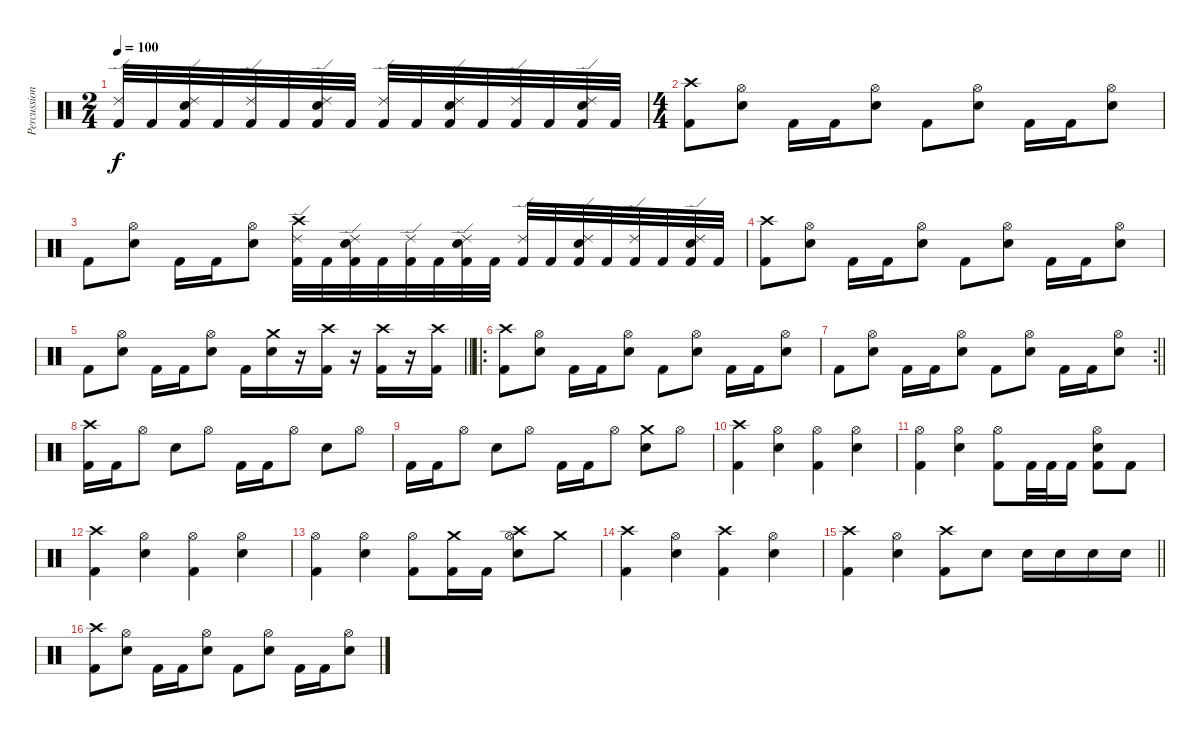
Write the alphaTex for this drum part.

\track ("Percussion" "Percussion") {instrument percussion}
\staff {score}
\articulation defaults
\ts (2 4)
\tempo 100
\clef neutral
\ks c
("Ride (edge) 2" "Kick (hit) 2").32{dy f} "Kick (hit) 2".32 ("Ride (edge) 2" "Snare (hit) 2" "Kick (hit) 2").32 "Kick (hit) 2".32 ("Ride (edge) 2" "Kick (hit) 2").32 "Kick (hit) 2".32 ("Ride (edge) 2" "Snare (hit) 2" "Kick (hit) 2").32 "Kick (hit) 2".32 ("Ride (edge) 2" "Kick (hit) 2").32 "Kick (hit) 2".32 ("Ride (edge) 2" "Snare (hit) 2" "Kick (hit) 2").32 "Kick (hit) 2".32 ("Ride (edge) 2" "Kick (hit) 2").32 "Kick (hit) 2".32 ("Ride (edge) 2" "Snare (hit) 2" "Kick (hit) 2").32 "Kick (hit) 2".32 |
\ts (4 4)
("Crash high (hit)" "Kick (hit) 2").8 ("Hi-Hat (open)" "Snare (hit) 2").8 "Kick (hit) 2".16 "Kick (hit) 2".16 ("Hi-Hat (open)" "Snare (hit) 2").8 "Kick (hit) 2".8 ("Hi-Hat (open)" "Snare (hit) 2").8 "Kick (hit) 2".16 "Kick (hit) 2".16 ("Hi-Hat (open)" "Snare (hit) 2").8 |
"Kick (hit) 2".8 ("Hi-Hat (open)" "Snare (hit) 2").8 "Kick (hit) 2".16 "Kick (hit) 2".16 ("Hi-Hat (open)" "Snare (hit) 2").8 ("Ride (edge) 2" "Crash high (hit)" "Kick (hit) 2").32 "Kick (hit) 2".32 ("Ride (edge) 2" "Snare (hit) 2" "Kick (hit) 2").32 "Kick (hit) 2".32 ("Ride (edge) 2" "Kick (hit) 2").32 "Kick (hit) 2".32 ("Ride (edge) 2" "Snare (hit) 2" "Kick (hit) 2").32 "Kick (hit) 2".32 ("Ride (edge) 2" "Kick (hit) 2").32 "Kick (hit) 2".32 ("Ride (edge) 2" "Snare (hit) 2" "Kick (hit) 2").32 "Kick (hit) 2".32 ("Ride (edge) 2" "Kick (hit) 2").32 "Kick (hit) 2".32 ("Ride (edge) 2" "Snare (hit) 2" "Kick (hit) 2").32 "Kick (hit) 2".32 |
("Crash high (hit)" "Kick (hit) 2").8 ("Hi-Hat (open)" "Snare (hit) 2").8 "Kick (hit) 2".16 "Kick (hit) 2".16 ("Hi-Hat (open)" "Snare (hit) 2").8 "Kick (hit) 2".8 ("Hi-Hat (open)" "Snare (hit) 2").8 "Kick (hit) 2".16 "Kick (hit) 2".16 ("Hi-Hat (open)" "Snare (hit) 2").8 |
\barLineRight lightlight "Kick (hit) 2".8
("Hi-Hat (open)" "Snare (hit) 2").8 "Kick (hit) 2".16 "Kick (hit) 2".16 ("Hi-Hat (open)" "Snare (hit) 2").8 "Kick (hit) 2".16 ("Snare (hit) 2" "Crash medium (hit)").16 r.16 ("Kick (hit) 2" "Crash high (hit)").16 r.16 ("Kick (hit) 2" "Crash high (hit)").16 r.16 ("Kick (hit) 2" "Crash high (hit)").16 |
\ro
\section ("" "")
("Crash high (hit)" "Kick (hit) 2").8 ("Hi-Hat (open)" "Snare (hit) 2").8 "Kick (hit) 2".16 "Kick (hit) 2".16 ("Hi-Hat (open)" "Snare (hit) 2").8 "Kick (hit) 2".8 ("Hi-Hat (open)" "Snare (hit) 2").8 "Kick (hit) 2".16 "Kick (hit) 2".16 ("Hi-Hat (open)" "Snare (hit) 2").8 |
\rc 2
\barLineRight lightlight "Kick (hit) 2".8
("Hi-Hat (open)" "Snare (hit) 2").8 "Kick (hit) 2".16 "Kick (hit) 2".16 ("Hi-Hat (open)" "Snare (hit) 2").8 "Kick (hit) 2".8 ("Hi-Hat (open)" "Snare (hit) 2").8 "Kick (hit) 2".16 "Kick (hit) 2".16 ("Hi-Hat (open)" "Snare (hit) 2").8 |
\section ("" "")
("Crash high (hit)" "Kick (hit) 2").16 "Kick (hit) 2".16 "Hi-Hat (open)".8 "Snare (hit) 2".8 "Hi-Hat (open)".8 "Kick (hit) 2".16 "Kick (hit) 2".16 "Hi-Hat (open)".8 "Snare (hit) 2".8 "Hi-Hat (open)".8 |
"Kick (hit) 2".16 "Kick (hit) 2".16 "Hi-Hat (open)".8 "Snare (hit) 2".8 "Hi-Hat (open)".8 "Kick (hit) 2".16 "Kick (hit) 2".16 "Hi-Hat (open)".8 ("Crash medium (hit)" "Snare (hit) 2").8 "Hi-Hat (open)".8 |
("Crash high (hit)" "Kick (hit) 2").4 ("Hi-Hat (open)" "Snare (hit) 2").4 ("Hi-Hat (open)" "Kick (hit) 2").4 ("Hi-Hat (open)" "Snare (hit) 2").4 |
("Hi-Hat (open)" "Kick (hit) 2").4 ("Hi-Hat (open)" "Snare (hit) 2").4 ("Hi-Hat (open)" "Kick (hit) 2").8 "Kick (hit) 2".32 "Kick (hit) 2".32 "Kick (hit) 2".16 ("Kick (hit) 2" "Hi-Hat (open)" "Snare (hit) 2").8 "Kick (hit) 2".8 |
("Crash high (hit)" "Kick (hit) 2").4 ("Hi-Hat (open)" "Snare (hit) 2").4 ("Hi-Hat (open)" "Kick (hit) 2").4 ("Hi-Hat (open)" "Snare (hit) 2").4 |
("Hi-Hat (open)" "Kick (hit) 2").4 ("Hi-Hat (open)" "Snare (hit) 2").4 ("Hi-Hat (open)" "Kick (hit) 2").8 ("Crash medium (hit)" "Kick (hit) 2").16 "Kick (hit) 2".16 ("Crash high (hit)" "Hi-Hat (open)" "Snare (hit) 2").8 "Crash medium (hit)".8 |
("Crash high (hit)" "Kick (hit) 2").4 ("Hi-Hat (open)" "Snare (hit) 2").4 ("Crash high (hit)" "Kick (hit) 2").4 ("Hi-Hat (open)" "Snare (hit) 2").4 |
\barLineRight lightlight
("Crash high (hit)" "Kick (hit) 2").4 ("Hi-Hat (open)" "Snare (hit) 2").4 ("Crash high (hit)" "Kick (hit) 2").8 "Snare (hit) 2".8 "Snare (hit) 2".16 "Snare (hit) 2".16 "Snare (hit) 2".16 "Snare (hit) 2".16 |
\section ("" "")
("Crash high (hit)" "Kick (hit) 2").8 ("Hi-Hat (open)" "Snare (hit) 2").8 "Kick (hit) 2".16 "Kick (hit) 2".16 ("Hi-Hat (open)" "Snare (hit) 2").8 "Kick (hit) 2".8 ("Hi-Hat (open)" "Snare (hit) 2").8 "Kick (hit) 2".16 "Kick (hit) 2".16 ("Hi-Hat (open)" "Snare (hit) 2").8
